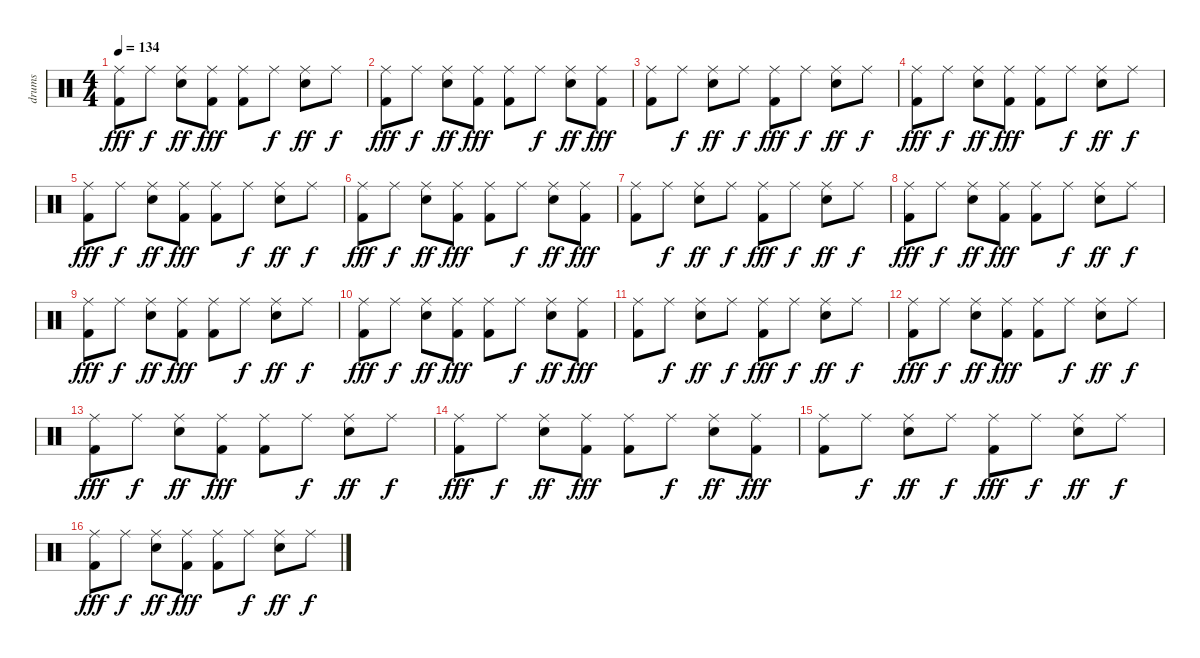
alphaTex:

\track ("drums" "drums") {instrument percussion}
\staff {score}
\articulation defaults
\ts (4 4)
\tempo 134
\clef neutral
\ks c
("Ride (middle)" "Kick (hit) 2").8{dy fff} "Ride (middle)".8{dy f} ("Ride (middle)" "Electric Snare (hit)").8{dy ff} ("Ride (middle)" "Kick (hit) 2").8{dy fff} ("Ride (middle)" "Kick (hit) 2").8 "Ride (middle)".8{dy f} ("Ride (middle)" "Electric Snare (hit)").8{dy ff} "Ride (middle)".8{dy f} |
("Ride (middle)" "Kick (hit) 2").8{dy fff} "Ride (middle)".8{dy f} ("Ride (middle)" "Electric Snare (hit)").8{dy ff} ("Ride (middle)" "Kick (hit) 2").8{dy fff} ("Ride (middle)" "Kick (hit) 2").8 "Ride (middle)".8{dy f} ("Ride (middle)" "Electric Snare (hit)").8{dy ff} ("Ride (middle)" "Kick (hit) 2").8{dy fff} |
("Ride (middle)" "Kick (hit) 2").8 "Ride (middle)".8{dy f} ("Ride (middle)" "Electric Snare (hit)").8{dy ff} "Ride (middle)".8{dy f} ("Ride (middle)" "Kick (hit) 2").8{dy fff} "Ride (middle)".8{dy f} ("Ride (middle)" "Electric Snare (hit)").8{dy ff} "Ride (middle)".8{dy f} |
("Ride (middle)" "Kick (hit) 2").8{dy fff} "Ride (middle)".8{dy f} ("Ride (middle)" "Electric Snare (hit)").8{dy ff} ("Ride (middle)" "Kick (hit) 2").8{dy fff} ("Ride (middle)" "Kick (hit) 2").8 "Ride (middle)".8{dy f} ("Ride (middle)" "Electric Snare (hit)").8{dy ff} "Ride (middle)".8{dy f} |
("Ride (middle)" "Kick (hit) 2").8{dy fff} "Ride (middle)".8{dy f} ("Ride (middle)" "Electric Snare (hit)").8{dy ff} ("Ride (middle)" "Kick (hit) 2").8{dy fff} ("Ride (middle)" "Kick (hit) 2").8 "Ride (middle)".8{dy f} ("Ride (middle)" "Electric Snare (hit)").8{dy ff} "Ride (middle)".8{dy f} |
("Ride (middle)" "Kick (hit) 2").8{dy fff} "Ride (middle)".8{dy f} ("Ride (middle)" "Electric Snare (hit)").8{dy ff} ("Ride (middle)" "Kick (hit) 2").8{dy fff} ("Ride (middle)" "Kick (hit) 2").8 "Ride (middle)".8{dy f} ("Ride (middle)" "Electric Snare (hit)").8{dy ff} ("Ride (middle)" "Kick (hit) 2").8{dy fff} |
("Ride (middle)" "Kick (hit) 2").8 "Ride (middle)".8{dy f} ("Ride (middle)" "Electric Snare (hit)").8{dy ff} "Ride (middle)".8{dy f} ("Ride (middle)" "Kick (hit) 2").8{dy fff} "Ride (middle)".8{dy f} ("Ride (middle)" "Electric Snare (hit)").8{dy ff} "Ride (middle)".8{dy f} |
("Ride (middle)" "Kick (hit) 2").8{dy fff} "Ride (middle)".8{dy f} ("Ride (middle)" "Electric Snare (hit)").8{dy ff} ("Ride (middle)" "Kick (hit) 2").8{dy fff} ("Ride (middle)" "Kick (hit) 2").8 "Ride (middle)".8{dy f} ("Ride (middle)" "Electric Snare (hit)").8{dy ff} "Ride (middle)".8{dy f} |
("Ride (middle)" "Kick (hit) 2").8{dy fff} "Ride (middle)".8{dy f} ("Ride (middle)" "Electric Snare (hit)").8{dy ff} ("Ride (middle)" "Kick (hit) 2").8{dy fff} ("Ride (middle)" "Kick (hit) 2").8 "Ride (middle)".8{dy f} ("Ride (middle)" "Electric Snare (hit)").8{dy ff} "Ride (middle)".8{dy f} |
("Ride (middle)" "Kick (hit) 2").8{dy fff} "Ride (middle)".8{dy f} ("Ride (middle)" "Electric Snare (hit)").8{dy ff} ("Ride (middle)" "Kick (hit) 2").8{dy fff} ("Ride (middle)" "Kick (hit) 2").8 "Ride (middle)".8{dy f} ("Ride (middle)" "Electric Snare (hit)").8{dy ff} ("Ride (middle)" "Kick (hit) 2").8{dy fff} |
("Ride (middle)" "Kick (hit) 2").8 "Ride (middle)".8{dy f} ("Ride (middle)" "Electric Snare (hit)").8{dy ff} "Ride (middle)".8{dy f} ("Ride (middle)" "Kick (hit) 2").8{dy fff} "Ride (middle)".8{dy f} ("Ride (middle)" "Electric Snare (hit)").8{dy ff} "Ride (middle)".8{dy f} |
("Ride (middle)" "Kick (hit) 2").8{dy fff} "Ride (middle)".8{dy f} ("Ride (middle)" "Electric Snare (hit)").8{dy ff} ("Ride (middle)" "Kick (hit) 2").8{dy fff} ("Ride (middle)" "Kick (hit) 2").8 "Ride (middle)".8{dy f} ("Ride (middle)" "Electric Snare (hit)").8{dy ff} "Ride (middle)".8{dy f} |
("Ride (middle)" "Kick (hit) 2").8{dy fff} "Ride (middle)".8{dy f} ("Ride (middle)" "Electric Snare (hit)").8{dy ff} ("Ride (middle)" "Kick (hit) 2").8{dy fff} ("Ride (middle)" "Kick (hit) 2").8 "Ride (middle)".8{dy f} ("Ride (middle)" "Electric Snare (hit)").8{dy ff} "Ride (middle)".8{dy f} |
("Ride (middle)" "Kick (hit) 2").8{dy fff} "Ride (middle)".8{dy f} ("Ride (middle)" "Electric Snare (hit)").8{dy ff} ("Ride (middle)" "Kick (hit) 2").8{dy fff} ("Ride (middle)" "Kick (hit) 2").8 "Ride (middle)".8{dy f} ("Ride (middle)" "Electric Snare (hit)").8{dy ff} ("Ride (middle)" "Kick (hit) 2").8{dy fff} |
("Ride (middle)" "Kick (hit) 2").8 "Ride (middle)".8{dy f} ("Ride (middle)" "Electric Snare (hit)").8{dy ff} "Ride (middle)".8{dy f} ("Ride (middle)" "Kick (hit) 2").8{dy fff} "Ride (middle)".8{dy f} ("Ride (middle)" "Electric Snare (hit)").8{dy ff} "Ride (middle)".8{dy f} |
("Ride (middle)" "Kick (hit) 2").8{dy fff} "Ride (middle)".8{dy f} ("Ride (middle)" "Electric Snare (hit)").8{dy ff} ("Ride (middle)" "Kick (hit) 2").8{dy fff} ("Ride (middle)" "Kick (hit) 2").8 "Ride (middle)".8{dy f} ("Ride (middle)" "Electric Snare (hit)").8{dy ff} "Ride (middle)".8{dy f}
